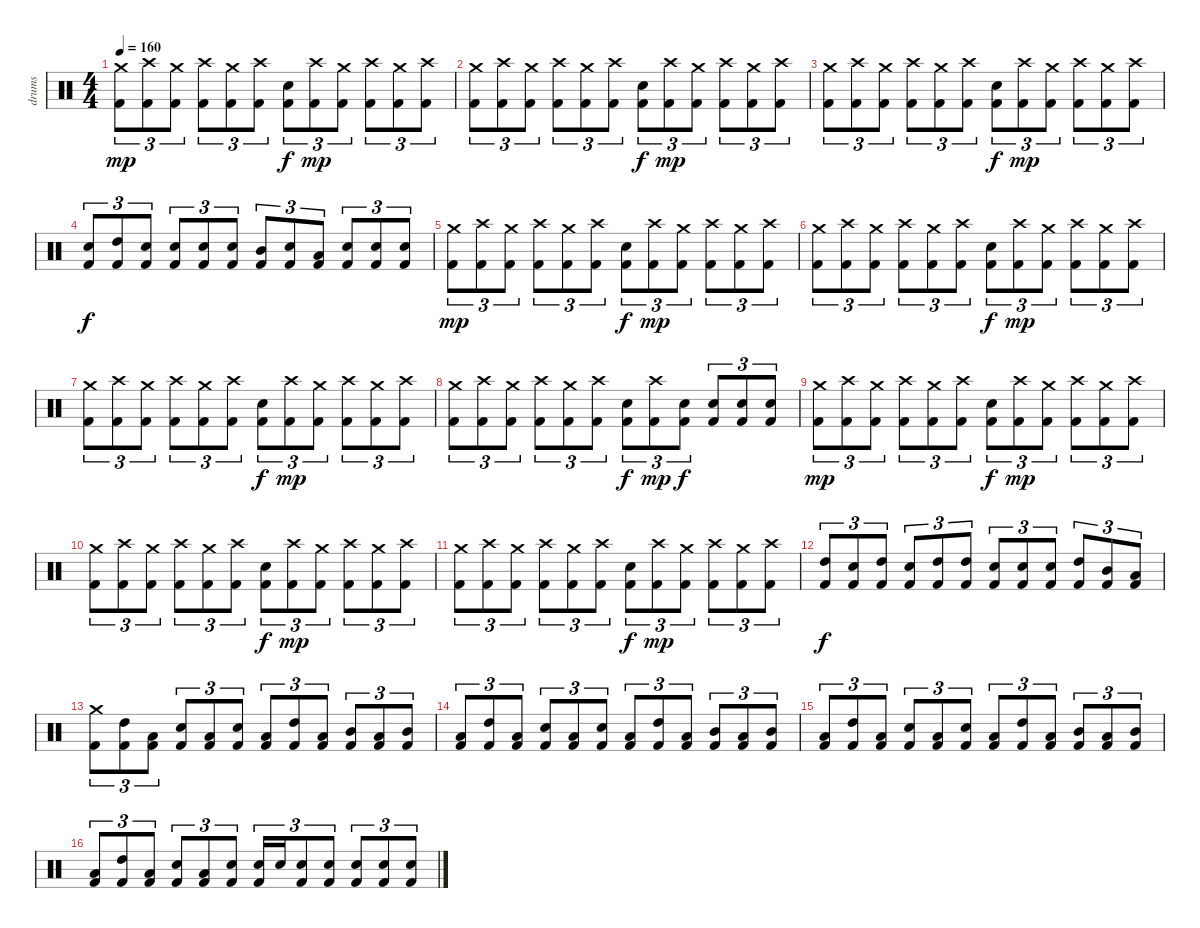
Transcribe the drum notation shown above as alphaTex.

\track ("drums" "drums") {instrument percussion}
\staff {score}
\articulation defaults
\ts (4 4)
\tempo 160
\clef neutral
\ks c
("Crash medium (hit)" "Kick (hit) 2").8{tu (3 2) dy mp} ("Crash high (hit)" "Kick (hit) 2").8{tu (3 2)} ("Crash medium (hit)" "Kick (hit) 2").8{tu (3 2)} ("Crash high (hit)" "Kick (hit) 2").8{tu (3 2)} ("Crash medium (hit)" "Kick (hit) 2").8{tu (3 2)} ("Crash high (hit)" "Kick (hit) 2").8{tu (3 2)} ("Electric Snare (hit)" "Kick (hit) 2").8{tu (3 2) dy f} ("Crash high (hit)" "Kick (hit) 2").8{tu (3 2) dy mp} ("Crash medium (hit)" "Kick (hit) 2").8{tu (3 2)} ("Crash high (hit)" "Kick (hit) 2").8{tu (3 2)} ("Crash medium (hit)" "Kick (hit) 2").8{tu (3 2)} ("Crash high (hit)" "Kick (hit) 2").8{tu (3 2)} |
("Crash medium (hit)" "Kick (hit) 2").8{tu (3 2)} ("Crash high (hit)" "Kick (hit) 2").8{tu (3 2)} ("Crash medium (hit)" "Kick (hit) 2").8{tu (3 2)} ("Crash high (hit)" "Kick (hit) 2").8{tu (3 2)} ("Crash medium (hit)" "Kick (hit) 2").8{tu (3 2)} ("Crash high (hit)" "Kick (hit) 2").8{tu (3 2)} ("Electric Snare (hit)" "Kick (hit) 2").8{tu (3 2) dy f} ("Crash high (hit)" "Kick (hit) 2").8{tu (3 2) dy mp} ("Crash medium (hit)" "Kick (hit) 2").8{tu (3 2)} ("Crash high (hit)" "Kick (hit) 2").8{tu (3 2)} ("Crash medium (hit)" "Kick (hit) 2").8{tu (3 2)} ("Crash high (hit)" "Kick (hit) 2").8{tu (3 2)} |
("Crash medium (hit)" "Kick (hit) 2").8{tu (3 2)} ("Crash high (hit)" "Kick (hit) 2").8{tu (3 2)} ("Crash medium (hit)" "Kick (hit) 2").8{tu (3 2)} ("Crash high (hit)" "Kick (hit) 2").8{tu (3 2)} ("Crash medium (hit)" "Kick (hit) 2").8{tu (3 2)} ("Crash high (hit)" "Kick (hit) 2").8{tu (3 2)} ("Electric Snare (hit)" "Kick (hit) 2").8{tu (3 2) dy f} ("Crash high (hit)" "Kick (hit) 2").8{tu (3 2) dy mp} ("Crash medium (hit)" "Kick (hit) 2").8{tu (3 2)} ("Crash high (hit)" "Kick (hit) 2").8{tu (3 2)} ("Crash medium (hit)" "Kick (hit) 2").8{tu (3 2)} ("Crash high (hit)" "Kick (hit) 2").8{tu (3 2)} |
("Electric Snare (hit)" "Kick (hit) 2").8{tu (3 2) dy f} ("High Tom (hit)" "Kick (hit) 2").8{tu (3 2)} ("Electric Snare (hit)" "Kick (hit) 2").8{tu (3 2)} ("Electric Snare (hit)" "Kick (hit) 2").8{tu (3 2)} ("Electric Snare (hit)" "Kick (hit) 2").8{tu (3 2)} ("Electric Snare (hit)" "Kick (hit) 2").8{tu (3 2)} ("Mid Tom (hit)" "Kick (hit) 2").8{tu (3 2)} ("Electric Snare (hit)" "Kick (hit) 2").8{tu (3 2)} ("Low Tom (hit)" "Kick (hit) 2").8{tu (3 2)} ("Electric Snare (hit)" "Kick (hit) 2").8{tu (3 2)} ("Electric Snare (hit)" "Kick (hit) 2").8{tu (3 2)} ("Electric Snare (hit)" "Kick (hit) 2").8{tu (3 2)} |
("Crash medium (hit)" "Kick (hit) 2").8{tu (3 2) dy mp} ("Crash high (hit)" "Kick (hit) 2").8{tu (3 2)} ("Crash medium (hit)" "Kick (hit) 2").8{tu (3 2)} ("Crash high (hit)" "Kick (hit) 2").8{tu (3 2)} ("Crash medium (hit)" "Kick (hit) 2").8{tu (3 2)} ("Crash high (hit)" "Kick (hit) 2").8{tu (3 2)} ("Electric Snare (hit)" "Kick (hit) 2").8{tu (3 2) dy f} ("Crash high (hit)" "Kick (hit) 2").8{tu (3 2) dy mp} ("Crash medium (hit)" "Kick (hit) 2").8{tu (3 2)} ("Crash high (hit)" "Kick (hit) 2").8{tu (3 2)} ("Crash medium (hit)" "Kick (hit) 2").8{tu (3 2)} ("Crash high (hit)" "Kick (hit) 2").8{tu (3 2)} |
("Crash medium (hit)" "Kick (hit) 2").8{tu (3 2)} ("Crash high (hit)" "Kick (hit) 2").8{tu (3 2)} ("Crash medium (hit)" "Kick (hit) 2").8{tu (3 2)} ("Crash high (hit)" "Kick (hit) 2").8{tu (3 2)} ("Crash medium (hit)" "Kick (hit) 2").8{tu (3 2)} ("Crash high (hit)" "Kick (hit) 2").8{tu (3 2)} ("Electric Snare (hit)" "Kick (hit) 2").8{tu (3 2) dy f} ("Crash high (hit)" "Kick (hit) 2").8{tu (3 2) dy mp} ("Crash medium (hit)" "Kick (hit) 2").8{tu (3 2)} ("Crash high (hit)" "Kick (hit) 2").8{tu (3 2)} ("Crash medium (hit)" "Kick (hit) 2").8{tu (3 2)} ("Crash high (hit)" "Kick (hit) 2").8{tu (3 2)} |
("Crash medium (hit)" "Kick (hit) 2").8{tu (3 2)} ("Crash high (hit)" "Kick (hit) 2").8{tu (3 2)} ("Crash medium (hit)" "Kick (hit) 2").8{tu (3 2)} ("Crash high (hit)" "Kick (hit) 2").8{tu (3 2)} ("Crash medium (hit)" "Kick (hit) 2").8{tu (3 2)} ("Crash high (hit)" "Kick (hit) 2").8{tu (3 2)} ("Electric Snare (hit)" "Kick (hit) 2").8{tu (3 2) dy f} ("Crash high (hit)" "Kick (hit) 2").8{tu (3 2) dy mp} ("Crash medium (hit)" "Kick (hit) 2").8{tu (3 2)} ("Crash high (hit)" "Kick (hit) 2").8{tu (3 2)} ("Crash medium (hit)" "Kick (hit) 2").8{tu (3 2)} ("Crash high (hit)" "Kick (hit) 2").8{tu (3 2)} |
("Crash medium (hit)" "Kick (hit) 2").8{tu (3 2)} ("Crash high (hit)" "Kick (hit) 2").8{tu (3 2)} ("Crash medium (hit)" "Kick (hit) 2").8{tu (3 2)} ("Crash high (hit)" "Kick (hit) 2").8{tu (3 2)} ("Crash medium (hit)" "Kick (hit) 2").8{tu (3 2)} ("Crash high (hit)" "Kick (hit) 2").8{tu (3 2)} ("Electric Snare (hit)" "Kick (hit) 2").8{tu (3 2) dy f} ("Crash high (hit)" "Kick (hit) 2").8{tu (3 2) dy mp} ("Electric Snare (hit)" "Kick (hit) 2").8{tu (3 2) dy f} ("Electric Snare (hit)" "Kick (hit) 2").8{tu (3 2)} ("Electric Snare (hit)" "Kick (hit) 2").8{tu (3 2)} ("Electric Snare (hit)" "Kick (hit) 2").8{tu (3 2)} |
("Crash medium (hit)" "Kick (hit) 2").8{tu (3 2) dy mp} ("Crash high (hit)" "Kick (hit) 2").8{tu (3 2)} ("Crash medium (hit)" "Kick (hit) 2").8{tu (3 2)} ("Crash high (hit)" "Kick (hit) 2").8{tu (3 2)} ("Crash medium (hit)" "Kick (hit) 2").8{tu (3 2)} ("Crash high (hit)" "Kick (hit) 2").8{tu (3 2)} ("Electric Snare (hit)" "Kick (hit) 2").8{tu (3 2) dy f} ("Crash high (hit)" "Kick (hit) 2").8{tu (3 2) dy mp} ("Crash medium (hit)" "Kick (hit) 2").8{tu (3 2)} ("Crash high (hit)" "Kick (hit) 2").8{tu (3 2)} ("Crash medium (hit)" "Kick (hit) 2").8{tu (3 2)} ("Crash high (hit)" "Kick (hit) 2").8{tu (3 2)} |
("Crash medium (hit)" "Kick (hit) 2").8{tu (3 2)} ("Crash high (hit)" "Kick (hit) 2").8{tu (3 2)} ("Crash medium (hit)" "Kick (hit) 2").8{tu (3 2)} ("Crash high (hit)" "Kick (hit) 2").8{tu (3 2)} ("Crash medium (hit)" "Kick (hit) 2").8{tu (3 2)} ("Crash high (hit)" "Kick (hit) 2").8{tu (3 2)} ("Electric Snare (hit)" "Kick (hit) 2").8{tu (3 2) dy f} ("Crash high (hit)" "Kick (hit) 2").8{tu (3 2) dy mp} ("Crash medium (hit)" "Kick (hit) 2").8{tu (3 2)} ("Crash high (hit)" "Kick (hit) 2").8{tu (3 2)} ("Crash medium (hit)" "Kick (hit) 2").8{tu (3 2)} ("Crash high (hit)" "Kick (hit) 2").8{tu (3 2)} |
("Crash medium (hit)" "Kick (hit) 2").8{tu (3 2)} ("Crash high (hit)" "Kick (hit) 2").8{tu (3 2)} ("Crash medium (hit)" "Kick (hit) 2").8{tu (3 2)} ("Crash high (hit)" "Kick (hit) 2").8{tu (3 2)} ("Crash medium (hit)" "Kick (hit) 2").8{tu (3 2)} ("Crash high (hit)" "Kick (hit) 2").8{tu (3 2)} ("Electric Snare (hit)" "Kick (hit) 2").8{tu (3 2) dy f} ("Crash high (hit)" "Kick (hit) 2").8{tu (3 2) dy mp} ("Crash medium (hit)" "Kick (hit) 2").8{tu (3 2)} ("Crash high (hit)" "Kick (hit) 2").8{tu (3 2)} ("Crash medium (hit)" "Kick (hit) 2").8{tu (3 2)} ("Crash high (hit)" "Kick (hit) 2").8{tu (3 2)} |
("High Tom (hit)" "Kick (hit) 2").8{tu (3 2) dy f} ("Electric Snare (hit)" "Kick (hit) 2").8{tu (3 2)} ("High Tom (hit)" "Kick (hit) 2").8{tu (3 2)} ("Electric Snare (hit)" "Kick (hit) 2").8{tu (3 2)} ("High Tom (hit)" "Kick (hit) 2").8{tu (3 2)} ("High Tom (hit)" "Kick (hit) 2").8{tu (3 2)} ("Electric Snare (hit)" "Kick (hit) 2").8{tu (3 2)} ("Electric Snare (hit)" "Kick (hit) 2").8{tu (3 2)} ("Electric Snare (hit)" "Kick (hit) 2").8{tu (3 2)} ("High Tom (hit)" "Kick (hit) 2").8{tu (3 2)} ("Mid Tom (hit)" "Kick (hit) 2").8{tu (3 2)} ("Low Tom (hit)" "Kick (hit) 2").8{tu (3 2)} |
("Crash medium (hit)" "Kick (hit) 2").8{tu (3 2)} ("High Tom (hit)" "Kick (hit) 2").8{tu (3 2)} ("Low Tom (hit)" "Kick (hit) 2").8{tu (3 2)} ("Electric Snare (hit)" "Kick (hit) 2").8{tu (3 2)} ("Low Tom (hit)" "Kick (hit) 2").8{tu (3 2)} ("Electric Snare (hit)" "Kick (hit) 2").8{tu (3 2)} ("Low Tom (hit)" "Kick (hit) 2").8{tu (3 2)} ("High Tom (hit)" "Kick (hit) 2").8{tu (3 2)} ("Low Tom (hit)" "Kick (hit) 2").8{tu (3 2)} ("Mid Tom (hit)" "Kick (hit) 2").8{tu (3 2)} ("Low Tom (hit)" "Kick (hit) 2").8{tu (3 2)} ("Mid Tom (hit)" "Kick (hit) 2").8{tu (3 2)} |
("Low Tom (hit)" "Kick (hit) 2").8{tu (3 2)} ("High Tom (hit)" "Kick (hit) 2").8{tu (3 2)} ("Low Tom (hit)" "Kick (hit) 2").8{tu (3 2)} ("Electric Snare (hit)" "Kick (hit) 2").8{tu (3 2)} ("Low Tom (hit)" "Kick (hit) 2").8{tu (3 2)} ("Electric Snare (hit)" "Kick (hit) 2").8{tu (3 2)} ("Low Tom (hit)" "Kick (hit) 2").8{tu (3 2)} ("High Tom (hit)" "Kick (hit) 2").8{tu (3 2)} ("Low Tom (hit)" "Kick (hit) 2").8{tu (3 2)} ("Mid Tom (hit)" "Kick (hit) 2").8{tu (3 2)} ("Low Tom (hit)" "Kick (hit) 2").8{tu (3 2)} ("Mid Tom (hit)" "Kick (hit) 2").8{tu (3 2)} |
("Low Tom (hit)" "Kick (hit) 2").8{tu (3 2)} ("High Tom (hit)" "Kick (hit) 2").8{tu (3 2)} ("Low Tom (hit)" "Kick (hit) 2").8{tu (3 2)} ("Electric Snare (hit)" "Kick (hit) 2").8{tu (3 2)} ("Low Tom (hit)" "Kick (hit) 2").8{tu (3 2)} ("Electric Snare (hit)" "Kick (hit) 2").8{tu (3 2)} ("Low Tom (hit)" "Kick (hit) 2").8{tu (3 2)} ("High Tom (hit)" "Kick (hit) 2").8{tu (3 2)} ("Low Tom (hit)" "Kick (hit) 2").8{tu (3 2)} ("Mid Tom (hit)" "Kick (hit) 2").8{tu (3 2)} ("Low Tom (hit)" "Kick (hit) 2").8{tu (3 2)} ("Mid Tom (hit)" "Kick (hit) 2").8{tu (3 2)} |
("Low Tom (hit)" "Kick (hit) 2").8{tu (3 2)} ("High Tom (hit)" "Kick (hit) 2").8{tu (3 2)} ("Low Tom (hit)" "Kick (hit) 2").8{tu (3 2)} ("Electric Snare (hit)" "Kick (hit) 2").8{tu (3 2)} ("Low Tom (hit)" "Kick (hit) 2").8{tu (3 2)} ("Electric Snare (hit)" "Kick (hit) 2").8{tu (3 2)} ("Electric Snare (hit)" "Kick (hit) 2").16{tu (3 2)} "Electric Snare (hit)".16{tu (3 2)} ("Electric Snare (hit)" "Kick (hit) 2").8{tu (3 2)} ("Electric Snare (hit)" "Kick (hit) 2").8{tu (3 2)} ("Electric Snare (hit)" "Kick (hit) 2").8{tu (3 2)} ("Electric Snare (hit)" "Kick (hit) 2").8{tu (3 2)} ("Electric Snare (hit)" "Kick (hit) 2").8{tu (3 2)}
